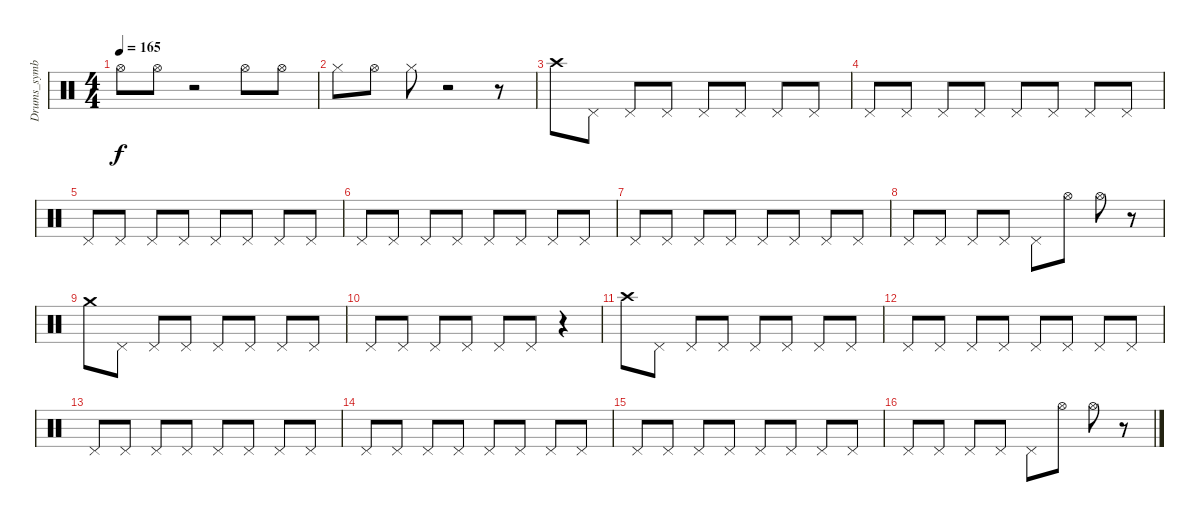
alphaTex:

\track ("Drums_symbal" "Drums_symb") {instrument percussion}
\staff {score}
\articulation defaults
\ts (4 4)
\tempo 165
\clef neutral
\ks c "Hi-Hat (open)".8{dy f} "Hi-Hat (open)".8
r.2 "Hi-Hat (open)".8 "Hi-Hat (open)".8 |
"Hi-Hat (closed)".8 "Hi-Hat (open)".8 "Hi-Hat (closed)".8 r.2 r.8 |
"Crash high (hit)".8 "Pedal Hi-Hat (hit)".8 "Pedal Hi-Hat (hit)".8 "Pedal Hi-Hat (hit)".8 "Pedal Hi-Hat (hit)".8 "Pedal Hi-Hat (hit)".8 "Pedal Hi-Hat (hit)".8 "Pedal Hi-Hat (hit)".8 |
"Pedal Hi-Hat (hit)".8 "Pedal Hi-Hat (hit)".8 "Pedal Hi-Hat (hit)".8 "Pedal Hi-Hat (hit)".8 "Pedal Hi-Hat (hit)".8 "Pedal Hi-Hat (hit)".8 "Pedal Hi-Hat (hit)".8 "Pedal Hi-Hat (hit)".8 |
"Pedal Hi-Hat (hit)".8 "Pedal Hi-Hat (hit)".8 "Pedal Hi-Hat (hit)".8 "Pedal Hi-Hat (hit)".8 "Pedal Hi-Hat (hit)".8 "Pedal Hi-Hat (hit)".8 "Pedal Hi-Hat (hit)".8 "Pedal Hi-Hat (hit)".8 |
"Pedal Hi-Hat (hit)".8 "Pedal Hi-Hat (hit)".8 "Pedal Hi-Hat (hit)".8 "Pedal Hi-Hat (hit)".8 "Pedal Hi-Hat (hit)".8 "Pedal Hi-Hat (hit)".8 "Pedal Hi-Hat (hit)".8 "Pedal Hi-Hat (hit)".8 |
"Pedal Hi-Hat (hit)".8 "Pedal Hi-Hat (hit)".8 "Pedal Hi-Hat (hit)".8 "Pedal Hi-Hat (hit)".8 "Pedal Hi-Hat (hit)".8 "Pedal Hi-Hat (hit)".8 "Pedal Hi-Hat (hit)".8 "Pedal Hi-Hat (hit)".8 |
"Pedal Hi-Hat (hit)".8 "Pedal Hi-Hat (hit)".8 "Pedal Hi-Hat (hit)".8 "Pedal Hi-Hat (hit)".8 "Pedal Hi-Hat (hit)".8 "Hi-Hat (open)".8 "Hi-Hat (open)".8 r.8 |
"Crash medium (hit)".8 "Pedal Hi-Hat (hit)".8 "Pedal Hi-Hat (hit)".8 "Pedal Hi-Hat (hit)".8 "Pedal Hi-Hat (hit)".8 "Pedal Hi-Hat (hit)".8 "Pedal Hi-Hat (hit)".8 "Pedal Hi-Hat (hit)".8 |
"Pedal Hi-Hat (hit)".8 "Pedal Hi-Hat (hit)".8 "Pedal Hi-Hat (hit)".8 "Pedal Hi-Hat (hit)".8 "Pedal Hi-Hat (hit)".8 "Pedal Hi-Hat (hit)".8 r.4 |
"Crash high (hit)".8 "Pedal Hi-Hat (hit)".8 "Pedal Hi-Hat (hit)".8 "Pedal Hi-Hat (hit)".8 "Pedal Hi-Hat (hit)".8 "Pedal Hi-Hat (hit)".8 "Pedal Hi-Hat (hit)".8 "Pedal Hi-Hat (hit)".8 |
"Pedal Hi-Hat (hit)".8 "Pedal Hi-Hat (hit)".8 "Pedal Hi-Hat (hit)".8 "Pedal Hi-Hat (hit)".8 "Pedal Hi-Hat (hit)".8 "Pedal Hi-Hat (hit)".8 "Pedal Hi-Hat (hit)".8 "Pedal Hi-Hat (hit)".8 |
"Pedal Hi-Hat (hit)".8 "Pedal Hi-Hat (hit)".8 "Pedal Hi-Hat (hit)".8 "Pedal Hi-Hat (hit)".8 "Pedal Hi-Hat (hit)".8 "Pedal Hi-Hat (hit)".8 "Pedal Hi-Hat (hit)".8 "Pedal Hi-Hat (hit)".8 |
"Pedal Hi-Hat (hit)".8 "Pedal Hi-Hat (hit)".8 "Pedal Hi-Hat (hit)".8 "Pedal Hi-Hat (hit)".8 "Pedal Hi-Hat (hit)".8 "Pedal Hi-Hat (hit)".8 "Pedal Hi-Hat (hit)".8 "Pedal Hi-Hat (hit)".8 |
"Pedal Hi-Hat (hit)".8 "Pedal Hi-Hat (hit)".8 "Pedal Hi-Hat (hit)".8 "Pedal Hi-Hat (hit)".8 "Pedal Hi-Hat (hit)".8 "Pedal Hi-Hat (hit)".8 "Pedal Hi-Hat (hit)".8 "Pedal Hi-Hat (hit)".8 |
"Pedal Hi-Hat (hit)".8 "Pedal Hi-Hat (hit)".8 "Pedal Hi-Hat (hit)".8 "Pedal Hi-Hat (hit)".8 "Pedal Hi-Hat (hit)".8 "Hi-Hat (open)".8 "Hi-Hat (open)".8 r.8
